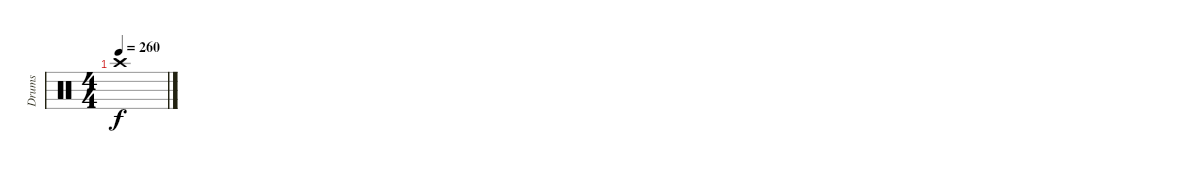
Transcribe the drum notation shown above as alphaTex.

\track ("Drums" "Drums") {instrument percussion bank 2}
\staff {score}
\articulation defaults
\ts (4 4)
\tempo 260
\clef neutral
\ks c "Crash high (hit)".1{dy f}
